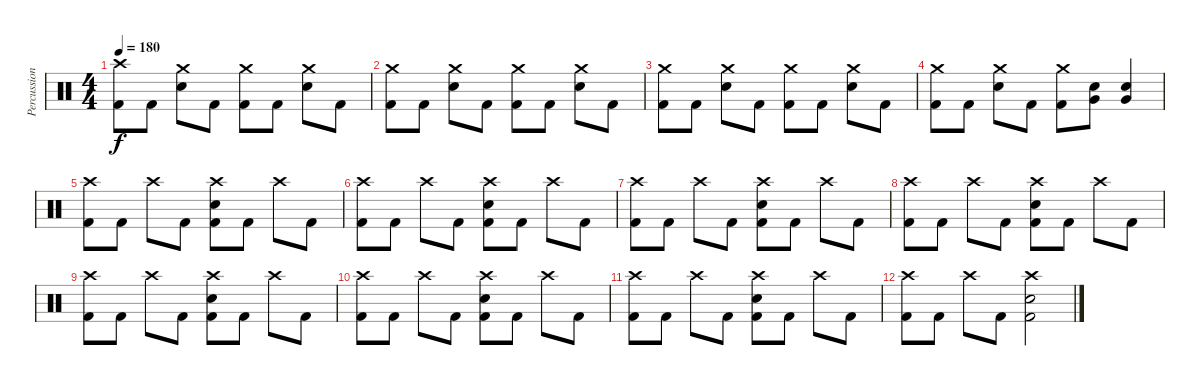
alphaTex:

\track ("Percussion" "Percussion") {instrument percussion}
\staff {score}
\articulation defaults
\ts (4 4)
\tempo 180
\clef neutral
\ks c
("Crash high (hit)" "Kick (hit) 2").8{dy f} "Kick (hit) 2".8 ("Crash medium (hit)" "Electric Snare (hit)").8 "Kick (hit) 2".8 ("Crash medium (hit)" "Kick (hit) 2").8 "Kick (hit) 2".8 ("Crash medium (hit)" "Electric Snare (hit)").8 "Kick (hit) 2".8 |
("Crash medium (hit)" "Kick (hit) 2").8 "Kick (hit) 2".8 ("Crash medium (hit)" "Electric Snare (hit)").8 "Kick (hit) 2".8 ("Crash medium (hit)" "Kick (hit) 2").8 "Kick (hit) 2".8 ("Crash medium (hit)" "Electric Snare (hit)").8 "Kick (hit) 2".8 |
("Crash medium (hit)" "Kick (hit) 2").8 "Kick (hit) 2".8 ("Crash medium (hit)" "Electric Snare (hit)").8 "Kick (hit) 2".8 ("Crash medium (hit)" "Kick (hit) 2").8 "Kick (hit) 2".8 ("Crash medium (hit)" "Electric Snare (hit)").8 "Kick (hit) 2".8 |
("Crash medium (hit)" "Kick (hit) 2").8 "Kick (hit) 2".8 ("Crash medium (hit)" "Electric Snare (hit)").8 "Kick (hit) 2".8 ("Crash medium (hit)" "Kick (hit) 2").8 ("Electric Snare (hit)" "Very Low Tom (hit)").8 ("Electric Snare (hit)" "Very Low Tom (hit)").4 |
("Crash high (hit)" "Kick (hit) 2").8 "Kick (hit) 2".8 "Crash high (hit)".8 "Kick (hit) 2".8 ("Crash high (hit)" "Electric Snare (hit)" "Kick (hit) 2").8 "Kick (hit) 2".8 "Crash high (hit)".8 "Kick (hit) 2".8 |
("Crash high (hit)" "Kick (hit) 2").8 "Kick (hit) 2".8 "Crash high (hit)".8 "Kick (hit) 2".8 ("Crash high (hit)" "Electric Snare (hit)" "Kick (hit) 2").8 "Kick (hit) 2".8 "Crash high (hit)".8 "Kick (hit) 2".8 |
("Crash high (hit)" "Kick (hit) 2").8 "Kick (hit) 2".8 "Crash high (hit)".8 "Kick (hit) 2".8 ("Crash high (hit)" "Electric Snare (hit)" "Kick (hit) 2").8 "Kick (hit) 2".8 "Crash high (hit)".8 "Kick (hit) 2".8 |
("Crash high (hit)" "Kick (hit) 2").8 "Kick (hit) 2".8 "Crash high (hit)".8 "Kick (hit) 2".8 ("Crash high (hit)" "Electric Snare (hit)" "Kick (hit) 2").8 "Kick (hit) 2".8 "Crash high (hit)".8 "Kick (hit) 2".8 |
("Crash high (hit)" "Kick (hit) 2").8 "Kick (hit) 2".8 "Crash high (hit)".8 "Kick (hit) 2".8 ("Crash high (hit)" "Electric Snare (hit)" "Kick (hit) 2").8 "Kick (hit) 2".8 "Crash high (hit)".8 "Kick (hit) 2".8 |
("Crash high (hit)" "Kick (hit) 2").8 "Kick (hit) 2".8 "Crash high (hit)".8 "Kick (hit) 2".8 ("Crash high (hit)" "Electric Snare (hit)" "Kick (hit) 2").8 "Kick (hit) 2".8 "Crash high (hit)".8 "Kick (hit) 2".8 |
("Crash high (hit)" "Kick (hit) 2").8 "Kick (hit) 2".8 "Crash high (hit)".8 "Kick (hit) 2".8 ("Crash high (hit)" "Electric Snare (hit)" "Kick (hit) 2").8 "Kick (hit) 2".8 "Crash high (hit)".8 "Kick (hit) 2".8 |
("Crash high (hit)" "Kick (hit) 2").8 "Kick (hit) 2".8 "Crash high (hit)".8 "Kick (hit) 2".8 ("Crash high (hit)" "Electric Snare (hit)" "Kick (hit) 2").2
